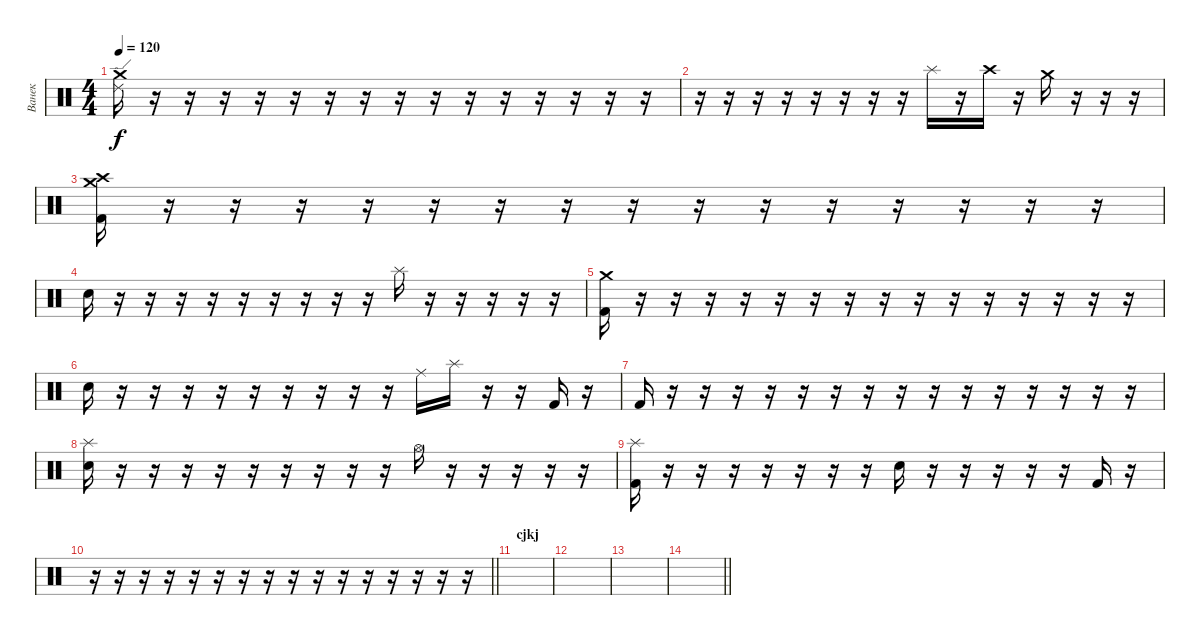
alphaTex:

\track ("Ванек" "Ванек") {instrument percussion}
\staff {score}
\articulation defaults
\ts (4 4)
\tempo 120
\clef neutral
\ks c
("Crash medium (hit)" "Ride (edge) 2").16{dy f} r.16 r.16 r.16 r.16 r.16 r.16 r.16 r.16 r.16 r.16 r.16 r.16 r.16 r.16 r.16 |
r.16 r.16 r.16 r.16 r.16 r.16 r.16 r.16 "Splash (hit)".16 r.16 "Crash high (hit)".16 r.16 "Crash medium (hit)".16 r.16 r.16 r.16 |
("Crash medium (hit)" "Crash high (hit)" "Kick (hit) 2").16 r.16 r.16 r.16 r.16 r.16 r.16 r.16 r.16 r.16 r.16 r.16 r.16 r.16 r.16 r.16 |
"Snare (hit) 2".16 r.16 r.16 r.16 r.16 r.16 r.16 r.16 r.16 r.16 "Splash (hit)".16 r.16 r.16 r.16 r.16 r.16 |
("Crash medium (hit)" "Kick (hit) 2").16 r.16 r.16 r.16 r.16 r.16 r.16 r.16 r.16 r.16 r.16 r.16 r.16 r.16 r.16 r.16 |
"Snare (hit) 2".16 r.16 r.16 r.16 r.16 r.16 r.16 r.16 r.16 r.16 "Ride (middle)".16 "Splash (hit)".16 r.16 r.16 "Kick (hit) 2".16 r.16 |
"Kick (hit) 2".16 r.16 r.16 r.16 r.16 r.16 r.16 r.16 r.16 r.16 r.16 r.16 r.16 r.16 r.16 r.16 |
("Splash (hit)" "Snare (hit) 2").16 r.16 r.16 r.16 r.16 r.16 r.16 r.16 r.16 r.16 "Hi-Hat (open)".16 r.16 r.16 r.16 r.16 r.16 |
("Splash (hit)" "Kick (hit) 2").16 r.16 r.16 r.16 r.16 r.16 r.16 r.16 "Snare (hit) 2".16 r.16 r.16 r.16 r.16 r.16 "Kick (hit) 2".16 r.16 |
\barLineRight lightlight
r.16 r.16 r.16 r.16 r.16 r.16 r.16 r.16 r.16 r.16 r.16 r.16 r.16 r.16 r.16 r.16 |
\section ("" "cjkj")
|
|
|
\barLineRight lightlight
